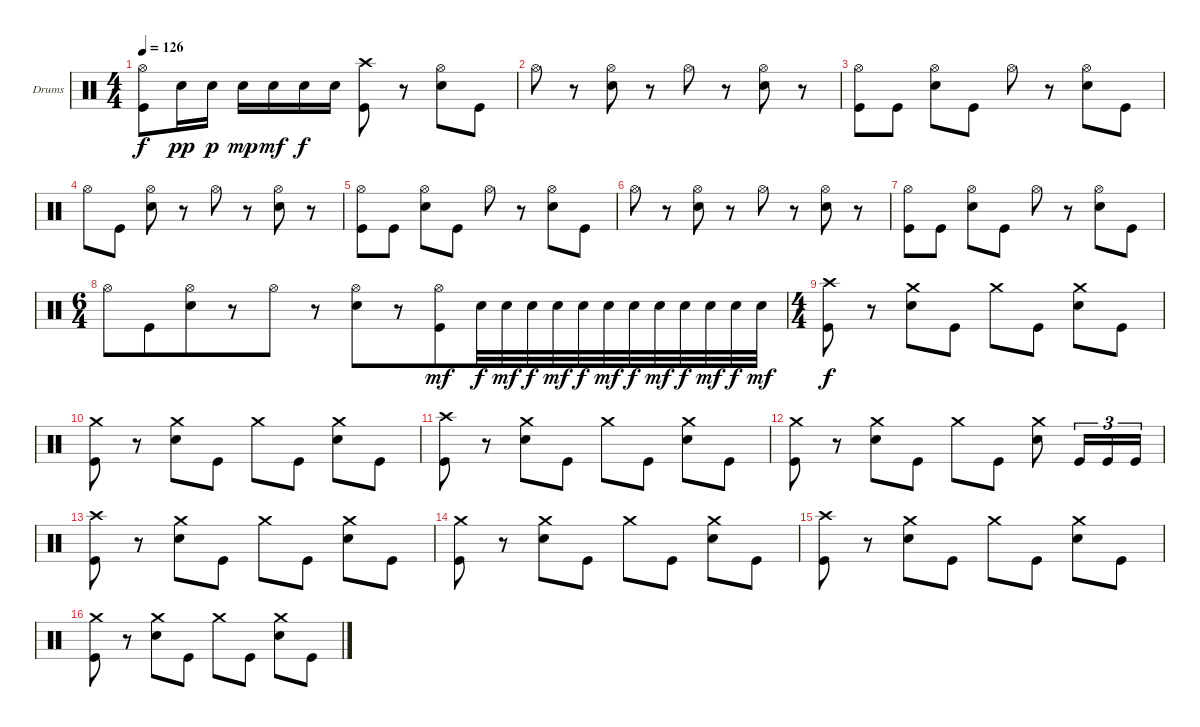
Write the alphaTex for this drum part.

\bracketExtendMode groupsimilarinstruments
\firstSystemTrackNameOrientation horizontal
\otherSystemsTrackNameOrientation horizontal
\track ("Drumkit" "Drums") {instrument percussion}
\staff {score}
\articulation defaults
\ts (4 4)
\tempo 126
\clef neutral
\ks c
("Hi-Hat (open)" "Kick (hit)").8{dy f} "Snare (hit) 2".16{dy pp} "Snare (hit) 2".16{dy p} "Snare (hit) 2".16{dy mp} "Snare (hit) 2".16{dy mf} "Snare (hit) 2".16{dy f} "Snare (hit) 2".16 ("Crash high (hit)" "Kick (hit)").8 r.8 ("Hi-Hat (open)" "Snare (hit) 2").8 "Kick (hit)".8 |
"Hi-Hat (open)".8 r.8 ("Hi-Hat (open)" "Snare (hit) 2").8 r.8 "Hi-Hat (open)".8 r.8 ("Hi-Hat (open)" "Snare (hit) 2").8 r.8 |
("Hi-Hat (open)" "Kick (hit)").8 "Kick (hit)".8 ("Hi-Hat (open)" "Snare (hit) 2").8 "Kick (hit)".8 "Hi-Hat (open)".8 r.8 ("Hi-Hat (open)" "Snare (hit) 2").8 "Kick (hit)".8 |
"Hi-Hat (open)".8 "Kick (hit)".8 ("Hi-Hat (open)" "Snare (hit) 2").8 r.8 "Hi-Hat (open)".8 r.8 ("Hi-Hat (open)" "Snare (hit) 2").8 r.8 |
("Hi-Hat (open)" "Kick (hit)").8 "Kick (hit)".8 ("Hi-Hat (open)" "Snare (hit) 2").8 "Kick (hit)".8 "Hi-Hat (open)".8 r.8 ("Hi-Hat (open)" "Snare (hit) 2").8 "Kick (hit)".8 |
"Hi-Hat (open)".8 r.8 ("Hi-Hat (open)" "Snare (hit) 2").8 r.8 "Hi-Hat (open)".8 r.8 ("Hi-Hat (open)" "Snare (hit) 2").8 r.8 |
("Hi-Hat (open)" "Kick (hit)").8 "Kick (hit)".8 ("Hi-Hat (open)" "Snare (hit) 2").8 "Kick (hit)".8 "Hi-Hat (open)".8 r.8 ("Hi-Hat (open)" "Snare (hit) 2").8 "Kick (hit)".8 |
\ts (6 4)
\beaming (8 6 6)
"Hi-Hat (open)".8 "Kick (hit)".8 ("Hi-Hat (open)" "Snare (hit) 2").8 r.8 "Hi-Hat (open)".8 r.8 ("Hi-Hat (open)" "Snare (hit) 2").8 r.8 ("Hi-Hat (open)" "Kick (hit)").8{dy mf} "Snare (hit) 2".32{dy f} "Snare (hit) 2".32{dy mf} "Snare (hit) 2".32{dy f} "Snare (hit) 2".32{dy mf} "Snare (hit) 2".32{dy f} "Snare (hit) 2".32{dy mf} "Snare (hit) 2".32{dy f} "Snare (hit) 2".32{dy mf} "Snare (hit) 2".32{dy f} "Snare (hit) 2".32{dy mf} "Snare (hit) 2".32{dy f} "Snare (hit) 2".32{dy mf} |
\ts (4 4)
\beaming (8 2 2 2 2)
("Kick (hit)" "Crash high (hit)").8{dy f} r.8 ("Snare (hit) 2" "Crash medium (hit)").8 "Kick (hit)".8 "Crash medium (hit)".8 "Kick (hit)".8 ("Snare (hit) 2" "Crash medium (hit)").8 "Kick (hit)".8 |
("Kick (hit)" "Crash medium (hit)").8 r.8 ("Snare (hit) 2" "Crash medium (hit)").8 "Kick (hit)".8 "Crash medium (hit)".8 "Kick (hit)".8 ("Snare (hit) 2" "Crash medium (hit)").8 "Kick (hit)".8 |
("Kick (hit)" "Crash high (hit)").8 r.8 ("Snare (hit) 2" "Crash medium (hit)").8 "Kick (hit)".8 "Crash medium (hit)".8 "Kick (hit)".8 ("Snare (hit) 2" "Crash medium (hit)").8 "Kick (hit)".8 |
("Kick (hit)" "Crash medium (hit)").8 r.8 ("Snare (hit) 2" "Crash medium (hit)").8 "Kick (hit)".8 "Crash medium (hit)".8 "Kick (hit)".8 ("Snare (hit) 2" "Crash medium (hit)").8 "Kick (hit)".16{tu (3 2)} "Kick (hit)".16{tu (3 2)} "Kick (hit)".16{tu (3 2)} |
("Kick (hit)" "Crash high (hit)").8 r.8 ("Snare (hit) 2" "Crash medium (hit)").8 "Kick (hit)".8 "Crash medium (hit)".8 "Kick (hit)".8 ("Snare (hit) 2" "Crash medium (hit)").8 "Kick (hit)".8 |
("Kick (hit)" "Crash medium (hit)").8 r.8 ("Snare (hit) 2" "Crash medium (hit)").8 "Kick (hit)".8 "Crash medium (hit)".8 "Kick (hit)".8 ("Snare (hit) 2" "Crash medium (hit)").8 "Kick (hit)".8 |
("Kick (hit)" "Crash high (hit)").8 r.8 ("Snare (hit) 2" "Crash medium (hit)").8 "Kick (hit)".8 "Crash medium (hit)".8 "Kick (hit)".8 ("Snare (hit) 2" "Crash medium (hit)").8 "Kick (hit)".8 |
("Kick (hit)" "Crash medium (hit)").8 r.8 ("Snare (hit) 2" "Crash medium (hit)").8 "Kick (hit)".8 "Crash medium (hit)".8 "Kick (hit)".8 ("Snare (hit) 2" "Crash medium (hit)").8 "Kick (hit)".8
